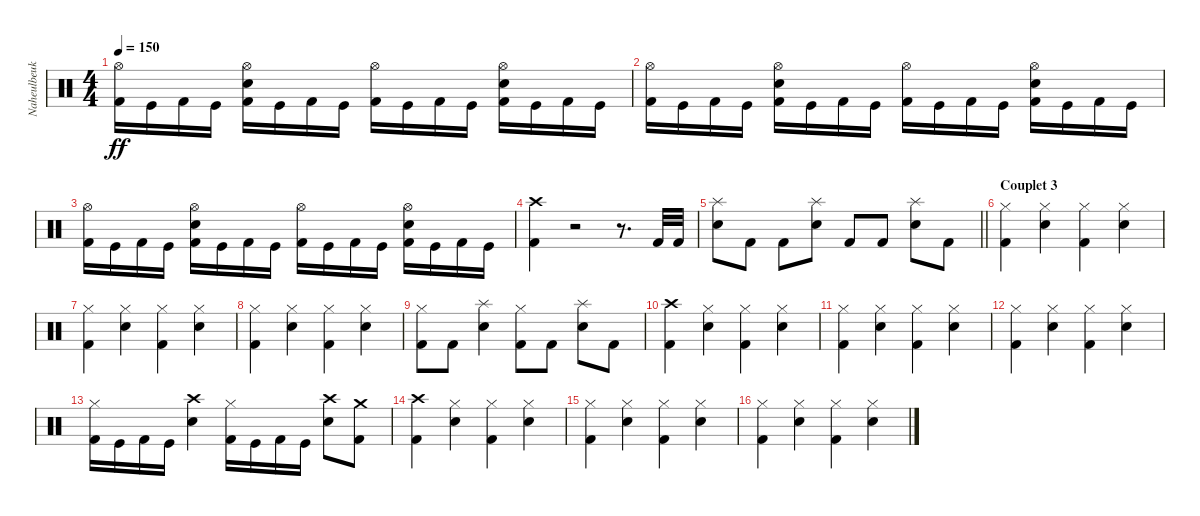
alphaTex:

\track ("Naheulbeuk" "Naheulbeuk") {instrument percussion}
\staff {score}
\articulation defaults
\ts (4 4)
\tempo 150
\clef neutral
\ks c
("Hi-Hat (open)" "Kick (hit) 2").16{dy ff} "Kick (hit)".16 "Kick (hit) 2".16 "Kick (hit)".16 ("Hi-Hat (open)" "Snare (hit) 2" "Kick (hit) 2").16 "Kick (hit)".16 "Kick (hit) 2".16 "Kick (hit)".16 ("Hi-Hat (open)" "Kick (hit) 2").16 "Kick (hit)".16 "Kick (hit) 2".16 "Kick (hit)".16 ("Hi-Hat (open)" "Snare (hit) 2" "Kick (hit) 2").16 "Kick (hit)".16 "Kick (hit) 2".16 "Kick (hit)".16 |
("Hi-Hat (open)" "Kick (hit) 2").16 "Kick (hit)".16 "Kick (hit) 2".16 "Kick (hit)".16 ("Hi-Hat (open)" "Snare (hit) 2" "Kick (hit) 2").16 "Kick (hit)".16 "Kick (hit) 2".16 "Kick (hit)".16 ("Hi-Hat (open)" "Kick (hit) 2").16 "Kick (hit)".16 "Kick (hit) 2".16 "Kick (hit)".16 ("Hi-Hat (open)" "Snare (hit) 2" "Kick (hit) 2").16 "Kick (hit)".16 "Kick (hit) 2".16 "Kick (hit)".16 |
("Hi-Hat (open)" "Kick (hit) 2").16 "Kick (hit)".16 "Kick (hit) 2".16 "Kick (hit)".16 ("Hi-Hat (open)" "Snare (hit) 2" "Kick (hit) 2").16 "Kick (hit)".16 "Kick (hit) 2".16 "Kick (hit)".16 ("Hi-Hat (open)" "Kick (hit) 2").16 "Kick (hit)".16 "Kick (hit) 2".16 "Kick (hit)".16 ("Hi-Hat (open)" "Snare (hit) 2" "Kick (hit) 2").16 "Kick (hit)".16 "Kick (hit) 2".16 "Kick (hit)".16 |
("Crash high (hit)" "Kick (hit) 2").4 r.2 r.8{d} "Kick (hit) 2".32 "Kick (hit) 2".32 |
\barLineRight lightlight
("Splash (hit)" "Snare (hit) 2").8 "Kick (hit) 2".8 "Kick (hit) 2".8 ("Splash (hit)" "Snare (hit) 2").8 "Kick (hit) 2".8 "Kick (hit) 2".8 ("Splash (hit)" "Snare (hit) 2").8 "Kick (hit) 2".8 |
\section ("" "Couplet 3")
("Hi-Hat (closed)" "Kick (hit) 2").4 ("Hi-Hat (closed)" "Snare (hit) 2").4 ("Hi-Hat (closed)" "Kick (hit) 2").4 ("Hi-Hat (closed)" "Snare (hit) 2").4 |
("Hi-Hat (closed)" "Kick (hit) 2").4 ("Hi-Hat (closed)" "Snare (hit) 2").4 ("Hi-Hat (closed)" "Kick (hit) 2").4 ("Hi-Hat (closed)" "Snare (hit) 2").4 |
("Hi-Hat (closed)" "Kick (hit) 2").4 ("Hi-Hat (closed)" "Snare (hit) 2").4 ("Hi-Hat (closed)" "Kick (hit) 2").4 ("Hi-Hat (closed)" "Snare (hit) 2").4 |
("Hi-Hat (closed)" "Kick (hit) 2").8 "Kick (hit) 2".8 ("Splash (hit)" "Snare (hit) 2").4 ("Hi-Hat (closed)" "Kick (hit) 2").8 "Kick (hit) 2".8 ("Splash (hit)" "Snare (hit) 2").8 "Kick (hit) 2".8 |
("Crash high (hit)" "Kick (hit) 2").4 ("Hi-Hat (closed)" "Snare (hit) 2").4 ("Hi-Hat (closed)" "Kick (hit) 2").4 ("Hi-Hat (closed)" "Snare (hit) 2").4 |
("Hi-Hat (closed)" "Kick (hit) 2").4 ("Hi-Hat (closed)" "Snare (hit) 2").4 ("Hi-Hat (closed)" "Kick (hit) 2").4 ("Hi-Hat (closed)" "Snare (hit) 2").4 |
("Hi-Hat (closed)" "Kick (hit) 2").4 ("Hi-Hat (closed)" "Snare (hit) 2").4 ("Hi-Hat (closed)" "Kick (hit) 2").4 ("Hi-Hat (closed)" "Snare (hit) 2").4 |
("Hi-Hat (closed)" "Kick (hit) 2").16 "Kick (hit)".16 "Kick (hit) 2".16 "Kick (hit)".16 ("Crash high (hit)" "Snare (hit) 2").4 ("Hi-Hat (closed)" "Kick (hit) 2").16 "Kick (hit)".16 "Kick (hit) 2".16 "Kick (hit)".16 ("Crash high (hit)" "Snare (hit) 2").8 ("Crash medium (hit)" "Kick (hit) 2").8 |
("Crash high (hit)" "Kick (hit) 2").4 ("Hi-Hat (closed)" "Snare (hit) 2").4 ("Hi-Hat (closed)" "Kick (hit) 2").4 ("Hi-Hat (closed)" "Snare (hit) 2").4 |
("Hi-Hat (closed)" "Kick (hit) 2").4 ("Hi-Hat (closed)" "Snare (hit) 2").4 ("Hi-Hat (closed)" "Kick (hit) 2").4 ("Hi-Hat (closed)" "Snare (hit) 2").4 |
("Hi-Hat (closed)" "Kick (hit) 2").4 ("Hi-Hat (closed)" "Snare (hit) 2").4 ("Hi-Hat (closed)" "Kick (hit) 2").4 ("Hi-Hat (closed)" "Snare (hit) 2").4
